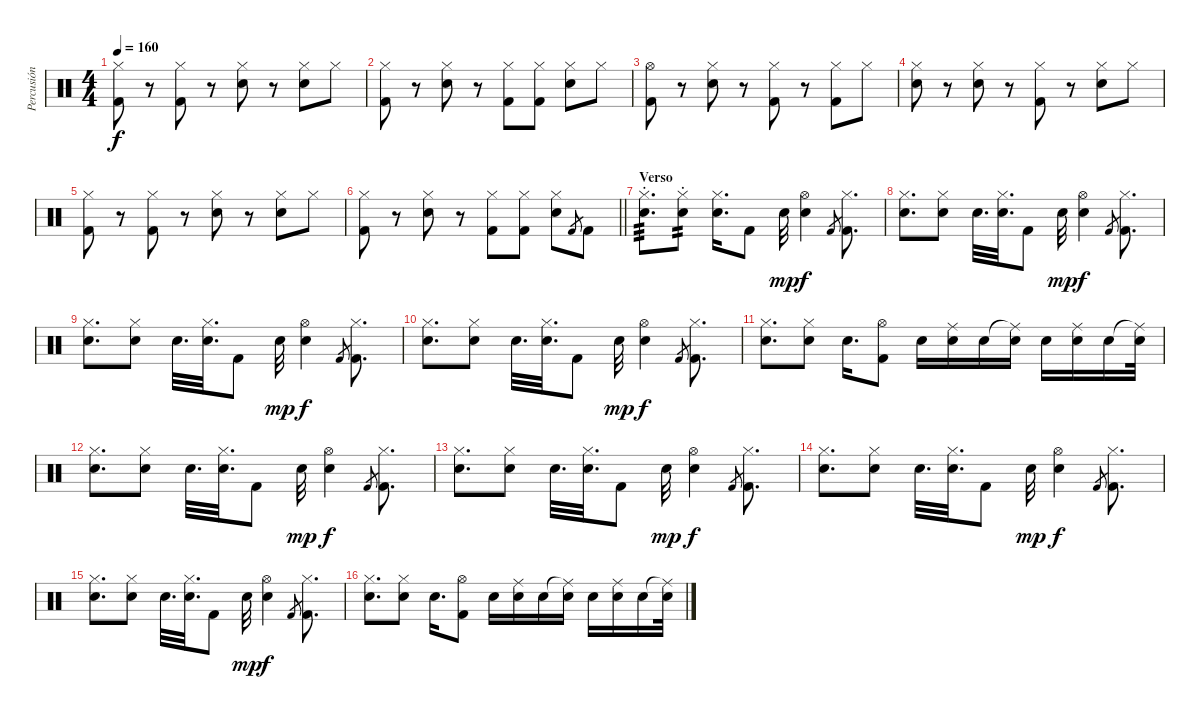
\track ("Percusión" "Percusión") {instrument percussion}
\staff {score}
\articulation defaults
\ts (4 4)
\tempo 160
\clef neutral
\ks c
("Hi-Hat (closed)" "Kick (hit) 2").8{dy f} r.8 ("Hi-Hat (closed)" "Kick (hit) 2").8 r.8 ("Hi-Hat (closed)" "Snare (hit) 2").8 r.8 ("Hi-Hat (closed)" "Snare (hit) 2").8 "Hi-Hat (closed)".8 |
("Hi-Hat (closed)" "Kick (hit) 2").8 r.8 ("Hi-Hat (closed)" "Snare (hit) 2").8 r.8 ("Hi-Hat (closed)" "Kick (hit) 2").8 ("Hi-Hat (closed)" "Kick (hit) 2").8 ("Hi-Hat (closed)" "Snare (hit) 2").8 "Hi-Hat (closed)".8 |
("Hi-Hat (open)" "Kick (hit) 2").8 r.8 ("Hi-Hat (closed)" "Snare (hit) 2").8 r.8 ("Hi-Hat (closed)" "Kick (hit) 2").8 r.8 ("Hi-Hat (closed)" "Kick (hit) 2").8 "Hi-Hat (closed)".8 |
("Hi-Hat (closed)" "Snare (hit) 2").8 r.8 ("Hi-Hat (closed)" "Snare (hit) 2").8 r.8 ("Hi-Hat (closed)" "Kick (hit) 2").8 r.8 ("Hi-Hat (closed)" "Snare (hit) 2").8 "Hi-Hat (closed)".8 |
("Hi-Hat (closed)" "Kick (hit) 2").8 r.8 ("Hi-Hat (closed)" "Kick (hit) 2").8 r.8 ("Hi-Hat (closed)" "Snare (hit) 2").8 r.8 ("Hi-Hat (closed)" "Snare (hit) 2").8 "Hi-Hat (closed)".8 |
\barLineRight lightlight
("Hi-Hat (closed)" "Kick (hit) 2").8 r.8 ("Hi-Hat (closed)" "Snare (hit) 2").8 r.8 ("Hi-Hat (closed)" "Kick (hit) 2").8 ("Hi-Hat (closed)" "Kick (hit) 2").8 ("Hi-Hat (closed)" "Snare (hit) 2").8 "Kick (hit) 2".8{gr} "Kick (hit) 2".8 |
\section ("" "Verso")
("Hi-Hat (closed)" "Electric Snare (hit)"{st}).8{d tp 3} ("Hi-Hat (closed)" "Electric Snare (hit)"{st}).8{tp 2} ("Hi-Hat (closed)" "Electric Snare (hit)").16{d} "Kick (hit) 2".8 "Electric Snare (hit)".32{dy mp} ("Hi-Hat (open)" "Electric Snare (hit)").4{dy f} "Kick (hit) 2".8{gr} ("Hi-Hat (closed)" "Kick (hit) 2").8{d} |
("Hi-Hat (closed)" "Electric Snare (hit)").8{d} ("Hi-Hat (closed)" "Electric Snare (hit)").8 "Electric Snare (hit)".32{d} ("Hi-Hat (closed)" "Electric Snare (hit)").32{d} "Kick (hit) 2".8 "Electric Snare (hit)".32{dy mp} ("Hi-Hat (open)" "Electric Snare (hit)").4{dy f} "Kick (hit) 2".8{gr} ("Hi-Hat (closed)" "Kick (hit) 2").8{d} |
("Hi-Hat (closed)" "Electric Snare (hit)").8{d} ("Hi-Hat (closed)" "Electric Snare (hit)").8 "Electric Snare (hit)".32{d} ("Hi-Hat (closed)" "Electric Snare (hit)").32{d} "Kick (hit) 2".8 "Electric Snare (hit)".32{dy mp} ("Hi-Hat (open)" "Electric Snare (hit)").4{dy f} "Kick (hit) 2".8{gr} ("Hi-Hat (closed)" "Kick (hit) 2").8{d} |
("Hi-Hat (closed)" "Electric Snare (hit)").8{d} ("Hi-Hat (closed)" "Electric Snare (hit)").8 "Electric Snare (hit)".32{d} ("Hi-Hat (closed)" "Electric Snare (hit)").32{d} "Kick (hit) 2".8 "Electric Snare (hit)".32{dy mp} ("Hi-Hat (open)" "Electric Snare (hit)").4{dy f} "Kick (hit) 2".8{gr} ("Hi-Hat (closed)" "Kick (hit) 2").8{d} |
("Hi-Hat (closed)" "Electric Snare (hit)").8{d} ("Hi-Hat (closed)" "Electric Snare (hit)").8 "Electric Snare (hit)".16{d} ("Hi-Hat (open)" "Kick (hit) 2").8 "Electric Snare (hit)".16 ("Ride (middle)" "Electric Snare (hit)").16 "Electric Snare (hit)".16 ("Ride (middle)"{t} "Electric Snare (hit)").16 "Electric Snare (hit)".16 ("Ride (middle)" "Electric Snare (hit)").16 "Electric Snare (hit)".16 ("Ride (middle)"{t} "Electric Snare (hit)").32 |
("Hi-Hat (closed)" "Electric Snare (hit)").8{d} ("Hi-Hat (closed)" "Electric Snare (hit)").8 "Electric Snare (hit)".32{d} ("Hi-Hat (closed)" "Electric Snare (hit)").32{d} "Kick (hit) 2".8 "Electric Snare (hit)".32{dy mp} ("Hi-Hat (open)" "Electric Snare (hit)").4{dy f} "Kick (hit) 2".8{gr} ("Hi-Hat (closed)" "Kick (hit) 2").8{d} |
("Hi-Hat (closed)" "Electric Snare (hit)").8{d} ("Hi-Hat (closed)" "Electric Snare (hit)").8 "Electric Snare (hit)".32{d} ("Hi-Hat (closed)" "Electric Snare (hit)").32{d} "Kick (hit) 2".8 "Electric Snare (hit)".32{dy mp} ("Hi-Hat (open)" "Electric Snare (hit)").4{dy f} "Kick (hit) 2".8{gr} ("Hi-Hat (closed)" "Kick (hit) 2").8{d} |
("Hi-Hat (closed)" "Electric Snare (hit)").8{d} ("Hi-Hat (closed)" "Electric Snare (hit)").8 "Electric Snare (hit)".32{d} ("Hi-Hat (closed)" "Electric Snare (hit)").32{d} "Kick (hit) 2".8 "Electric Snare (hit)".32{dy mp} ("Hi-Hat (open)" "Electric Snare (hit)").4{dy f} "Kick (hit) 2".8{gr} ("Hi-Hat (closed)" "Kick (hit) 2").8{d} |
("Hi-Hat (closed)" "Electric Snare (hit)").8{d} ("Hi-Hat (closed)" "Electric Snare (hit)").8 "Electric Snare (hit)".32{d} ("Hi-Hat (closed)" "Electric Snare (hit)").32{d} "Kick (hit) 2".8 "Electric Snare (hit)".32{dy mp} ("Hi-Hat (open)" "Electric Snare (hit)").4{dy f} "Kick (hit) 2".8{gr} ("Hi-Hat (closed)" "Kick (hit) 2").8{d} |
("Hi-Hat (closed)" "Electric Snare (hit)").8{d} ("Hi-Hat (closed)" "Electric Snare (hit)").8 "Electric Snare (hit)".16{d} ("Hi-Hat (open)" "Kick (hit) 2").8 "Electric Snare (hit)".16 ("Ride (middle)" "Electric Snare (hit)").16 "Electric Snare (hit)".16 ("Ride (middle)"{t} "Electric Snare (hit)").16 "Electric Snare (hit)".16 ("Ride (middle)" "Electric Snare (hit)").16 "Electric Snare (hit)".16 ("Ride (middle)"{t} "Electric Snare (hit)").32
